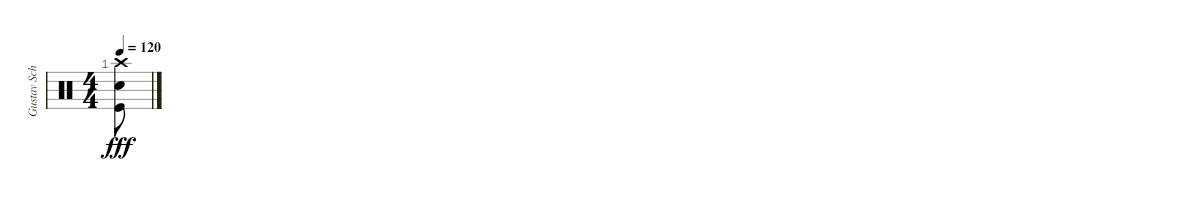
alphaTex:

\track ("Gustav Schäfer" "Gustav Sch") {instrument percussion}
\staff {score}
\articulation defaults
\ts (4 4)
\tempo 120
\clef neutral
\ks c
("Crash high (hit)" "Snare (hit) 2" "Kick (hit)").8{dy fff}
